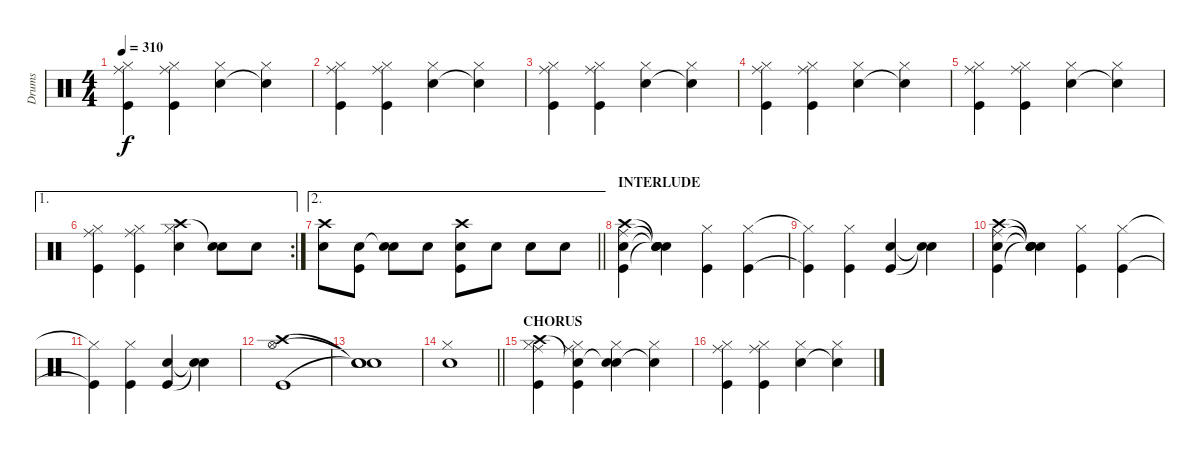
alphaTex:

\track ("Drums" "Drums") {instrument percussion}
\staff {score}
\articulation defaults
\ts (4 4)
\tempo 310
\clef neutral
\ks c
("Ride (middle)" "Hi-Hat (closed)" "Kick (hit)").4{dy f} ("Ride (middle)" "Hi-Hat (closed)" "Kick (hit)").4 ("Snare (hit) 2" "Hi-Hat (closed)").4 ("Snare (hit)"{t} "Hi-Hat (closed)").4 |
("Ride (middle)" "Hi-Hat (closed)" "Kick (hit)").4 ("Ride (middle)" "Hi-Hat (closed)" "Kick (hit)").4 ("Snare (hit) 2" "Hi-Hat (closed)").4 ("Snare (hit)"{t} "Hi-Hat (closed)").4 |
("Ride (middle)" "Hi-Hat (closed)" "Kick (hit)").4 ("Ride (middle)" "Hi-Hat (closed)" "Kick (hit)").4 ("Snare (hit) 2" "Hi-Hat (closed)").4 ("Snare (hit)"{t} "Hi-Hat (closed)").4 |
("Ride (middle)" "Hi-Hat (closed)" "Kick (hit)").4 ("Ride (middle)" "Hi-Hat (closed)" "Kick (hit)").4 ("Snare (hit) 2" "Hi-Hat (closed)").4 ("Snare (hit)"{t} "Hi-Hat (closed)").4 |
("Ride (middle)" "Hi-Hat (closed)" "Kick (hit)").4 ("Ride (middle)" "Hi-Hat (closed)" "Kick (hit)").4 ("Snare (hit) 2" "Hi-Hat (closed)").4 ("Snare (hit)"{t} "Hi-Hat (closed)").4 |
\ae 1
\rc 2
("Ride (middle)" "Hi-Hat (closed)" "Kick (hit)").4 ("Ride (middle)" "Hi-Hat (closed)" "Kick (hit)").4 ("Crash high (hit)" "Snare (hit) 2" "Hi-Hat (closed)").4 ("Snare (hit)"{t} "Snare (hit) 2").8 "Snare (hit) 2".8 |
\ae 2
\barLineRight lightlight
("Crash high (hit)" "Snare (hit) 2").8 ("Snare (hit) 2" "Kick (hit)").8 ("Snare (hit)"{t} "Snare (hit) 2").8 "Snare (hit) 2".8 ("Crash high (hit)" "Snare (hit) 2" "Kick (hit)").8 "Snare (hit) 2".8 "Snare (hit) 2".8 "Snare (hit) 2".8 |
\section ("" "INTERLUDE")
("Crash high (hit)" "Ride (middle)" "Snare (hit) 2" "Kick (hit)").4 ("Snare (hit)"{t} "Snare (hit)"{t} "Snare (hit)"{t} "Snare (hit)"{t}).4 ("Hi-Hat (closed)" "Kick (hit)").4 ("Hi-Hat (closed)" "Kick (hit)").4 |
("Hi-Hat (closed)"{t} "Kick (hit)"{t}).4 ("Hi-Hat (closed)" "Kick (hit)").4 ("Snare (hit) 2" "Kick (hit)").4 ("Snare (hit)"{t} "Snare (hit)"{t}).4 |
("Crash high (hit)" "Ride (middle)" "Snare (hit) 2" "Kick (hit)").4 ("Snare (hit)"{t} "Snare (hit)"{t} "Snare (hit)"{t} "Snare (hit)"{t}).4 ("Hi-Hat (closed)" "Kick (hit)").4 ("Hi-Hat (closed)" "Kick (hit)").4 |
("Hi-Hat (closed)"{t} "Kick (hit)"{t}).4 ("Hi-Hat (closed)" "Kick (hit)").4 ("Snare (hit) 2" "Kick (hit)").4 ("Snare (hit)"{t} "Snare (hit)"{t}).4 |
("Crash high (hit)" "Hi-Hat (open)" "Kick (hit)").1 |
("Snare (hit)"{t} "Snare (hit)"{t} "Snare (hit)"{t}).1 |
\barLineRight lightlight
("Hi-Hat (closed)" "Snare (hit) 2").1 |
\section ("" "CHORUS")
("Crash high (hit)" "Ride (middle)" "Hi-Hat (closed)" "Kick (hit)").4 ("Snare (hit)"{t} "Ride (middle)" "Hi-Hat (closed)" "Kick (hit)").4 ("Snare (hit)"{t} "Snare (hit) 2" "Hi-Hat (closed)").4 ("Snare (hit)"{t} "Hi-Hat (closed)").4 |
("Ride (middle)" "Hi-Hat (closed)" "Kick (hit)").4 ("Ride (middle)" "Hi-Hat (closed)" "Kick (hit)").4 ("Snare (hit) 2" "Hi-Hat (closed)").4 ("Snare (hit)"{t} "Hi-Hat (closed)").4
